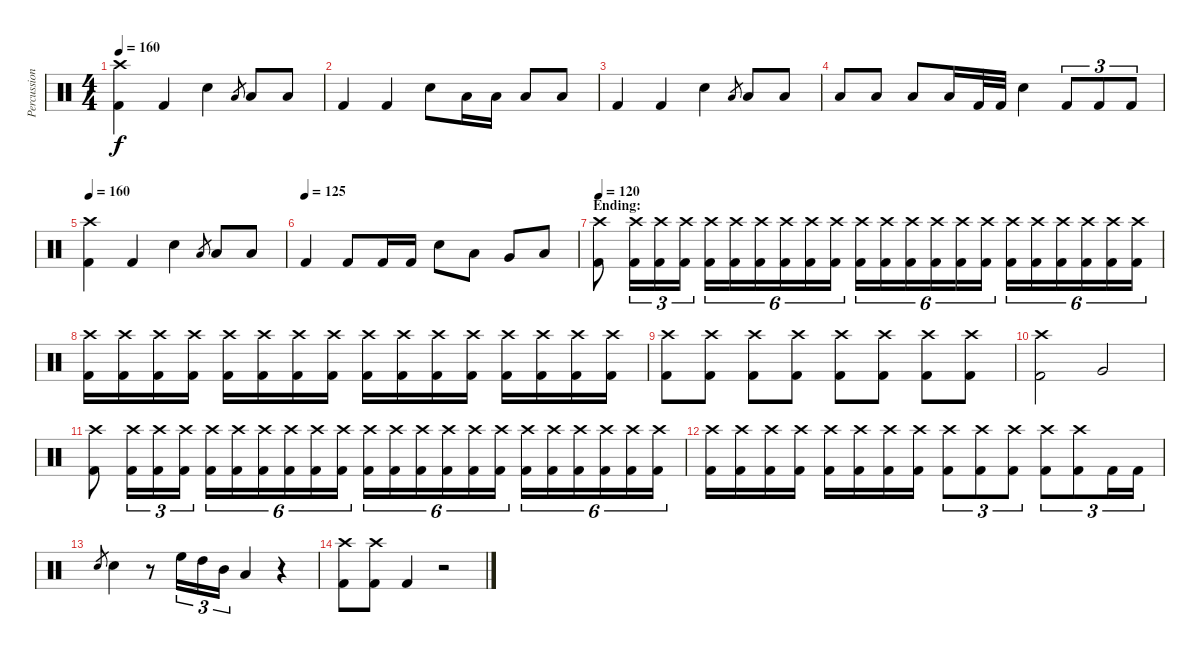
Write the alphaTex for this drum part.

\track ("Percussion" "Percussion") {instrument percussion}
\staff {score}
\articulation defaults
\ts (4 4)
\tempo 160
\clef neutral
\ks c
("Crash high (hit)" "Kick (hit) 2").4{dy f} "Kick (hit) 2".4 "Electric Snare (hit)".4 "Low Floor Tom (hit)".8{gr} "Low Floor Tom (hit)".8 "Low Floor Tom (hit)".8 |
"Kick (hit) 2".4 "Kick (hit) 2".4 "Electric Snare (hit)".8 "Low Floor Tom (hit)".16 "Low Floor Tom (hit)".16 "Low Floor Tom (hit)".8 "Low Floor Tom (hit)".8 |
"Kick (hit) 2".4 "Kick (hit) 2".4 "Electric Snare (hit)".4 "Low Floor Tom (hit)".8{gr} "Low Floor Tom (hit)".8 "Low Floor Tom (hit)".8 |
"Low Floor Tom (hit)".8 "Low Floor Tom (hit)".8 "Low Floor Tom (hit)".8 "Low Floor Tom (hit)".16 "Kick (hit) 2".32 "Kick (hit) 2".32 "Electric Snare (hit)".4 "Kick (hit) 2".8{tu (3 2)} "Kick (hit) 2".8{tu (3 2)} "Kick (hit) 2".8{tu (3 2)} |
\tempo 160
("Crash high (hit)" "Kick (hit) 2").4 "Kick (hit) 2".4 "Electric Snare (hit)".4 "Low Floor Tom (hit)".8{gr} "Low Floor Tom (hit)".8 "Low Floor Tom (hit)".8 |
\tempo (125)
"Kick (hit) 2".4 "Kick (hit) 2".8 "Kick (hit) 2".16 "Kick (hit) 2".16 "Electric Snare (hit)".8 "Low Tom (hit)".8 "Very Low Tom (hit)".8 "Low Floor Tom (hit)".8 |
\section ("" "Ending:")
\tempo 120
("Crash high (hit)" "Kick (hit) 2").8 ("Crash high (hit)" "Kick (hit) 2").16{tu (3 2)} ("Crash high (hit)" "Kick (hit) 2").16{tu (3 2)} ("Crash high (hit)" "Kick (hit) 2").16{tu (3 2)} ("Crash high (hit)" "Kick (hit) 2").16{tu (6 4)} ("Crash high (hit)" "Kick (hit) 2").16{tu (6 4)} ("Crash high (hit)" "Kick (hit) 2").16{tu (6 4)} ("Crash high (hit)" "Kick (hit) 2").16{tu (6 4)} ("Crash high (hit)" "Kick (hit) 2").16{tu (6 4)} ("Crash high (hit)" "Kick (hit) 2").16{tu (6 4)} ("Crash high (hit)" "Kick (hit) 2").16{tu (6 4)} ("Crash high (hit)" "Kick (hit) 2").16{tu (6 4)} ("Crash high (hit)" "Kick (hit) 2").16{tu (6 4)} ("Crash high (hit)" "Kick (hit) 2").16{tu (6 4)} ("Crash high (hit)" "Kick (hit) 2").16{tu (6 4)} ("Crash high (hit)" "Kick (hit) 2").16{tu (6 4)} ("Crash high (hit)" "Kick (hit) 2").16{tu (6 4)} ("Crash high (hit)" "Kick (hit) 2").16{tu (6 4)} ("Crash high (hit)" "Kick (hit) 2").16{tu (6 4)} ("Crash high (hit)" "Kick (hit) 2").16{tu (6 4)} ("Crash high (hit)" "Kick (hit) 2").16{tu (6 4)} ("Crash high (hit)" "Kick (hit) 2").16{tu (6 4)} |
("Crash high (hit)" "Kick (hit) 2").16 ("Crash high (hit)" "Kick (hit) 2").16 ("Crash high (hit)" "Kick (hit) 2").16 ("Crash high (hit)" "Kick (hit) 2").16 ("Crash high (hit)" "Kick (hit) 2").16 ("Crash high (hit)" "Kick (hit) 2").16 ("Crash high (hit)" "Kick (hit) 2").16 ("Crash high (hit)" "Kick (hit) 2").16 ("Crash high (hit)" "Kick (hit) 2").16 ("Crash high (hit)" "Kick (hit) 2").16 ("Crash high (hit)" "Kick (hit) 2").16 ("Crash high (hit)" "Kick (hit) 2").16 ("Crash high (hit)" "Kick (hit) 2").16 ("Crash high (hit)" "Kick (hit) 2").16 ("Crash high (hit)" "Kick (hit) 2").16 ("Crash high (hit)" "Kick (hit) 2").16 |
("Crash high (hit)" "Kick (hit) 2").8 ("Crash high (hit)" "Kick (hit) 2").8 ("Crash high (hit)" "Kick (hit) 2").8 ("Crash high (hit)" "Kick (hit) 2").8 ("Crash high (hit)" "Kick (hit) 2").8 ("Crash high (hit)" "Kick (hit) 2").8 ("Crash high (hit)" "Kick (hit) 2").8 ("Crash high (hit)" "Kick (hit) 2").8 |
("Crash high (hit)" "Kick (hit) 2").2 "Very Low Tom (hit)".2 |
("Crash high (hit)" "Kick (hit) 2").8 ("Crash high (hit)" "Kick (hit) 2").16{tu (3 2)} ("Crash high (hit)" "Kick (hit) 2").16{tu (3 2)} ("Crash high (hit)" "Kick (hit) 2").16{tu (3 2)} ("Crash high (hit)" "Kick (hit) 2").16{tu (6 4)} ("Crash high (hit)" "Kick (hit) 2").16{tu (6 4)} ("Crash high (hit)" "Kick (hit) 2").16{tu (6 4)} ("Crash high (hit)" "Kick (hit) 2").16{tu (6 4)} ("Crash high (hit)" "Kick (hit) 2").16{tu (6 4)} ("Crash high (hit)" "Kick (hit) 2").16{tu (6 4)} ("Crash high (hit)" "Kick (hit) 2").16{tu (6 4)} ("Crash high (hit)" "Kick (hit) 2").16{tu (6 4)} ("Crash high (hit)" "Kick (hit) 2").16{tu (6 4)} ("Crash high (hit)" "Kick (hit) 2").16{tu (6 4)} ("Crash high (hit)" "Kick (hit) 2").16{tu (6 4)} ("Crash high (hit)" "Kick (hit) 2").16{tu (6 4)} ("Crash high (hit)" "Kick (hit) 2").16{tu (6 4)} ("Crash high (hit)" "Kick (hit) 2").16{tu (6 4)} ("Crash high (hit)" "Kick (hit) 2").16{tu (6 4)} ("Crash high (hit)" "Kick (hit) 2").16{tu (6 4)} ("Crash high (hit)" "Kick (hit) 2").16{tu (6 4)} ("Crash high (hit)" "Kick (hit) 2").16{tu (6 4)} |
("Crash high (hit)" "Kick (hit) 2").16 ("Crash high (hit)" "Kick (hit) 2").16 ("Crash high (hit)" "Kick (hit) 2").16 ("Crash high (hit)" "Kick (hit) 2").16 ("Crash high (hit)" "Kick (hit) 2").16 ("Crash high (hit)" "Kick (hit) 2").16 ("Crash high (hit)" "Kick (hit) 2").16 ("Crash high (hit)" "Kick (hit) 2").16 ("Crash high (hit)" "Kick (hit) 2").8{tu (3 2)} ("Crash high (hit)" "Kick (hit) 2").8{tu (3 2)} ("Crash high (hit)" "Kick (hit) 2").8{tu (3 2)} ("Crash high (hit)" "Kick (hit) 2").8{tu (3 2)} ("Crash high (hit)" "Kick (hit) 2").8{tu (3 2)} "Kick (hit) 2".16{tu (3 2)} "Kick (hit) 2".16{tu (3 2)} |
"Electric Snare (hit)".8{gr} "Electric Snare (hit)".4 r.8 "High Floor Tom (hit)".16{tu (3 2)} "High Tom (hit)".16{tu (3 2)} "Mid Tom (hit)".16{tu (3 2)} "Low Tom (hit)".4 r.4 |
("Crash high (hit)" "Kick (hit) 2").8 ("Crash high (hit)" "Kick (hit) 2").8 "Kick (hit) 2".4 r.2
